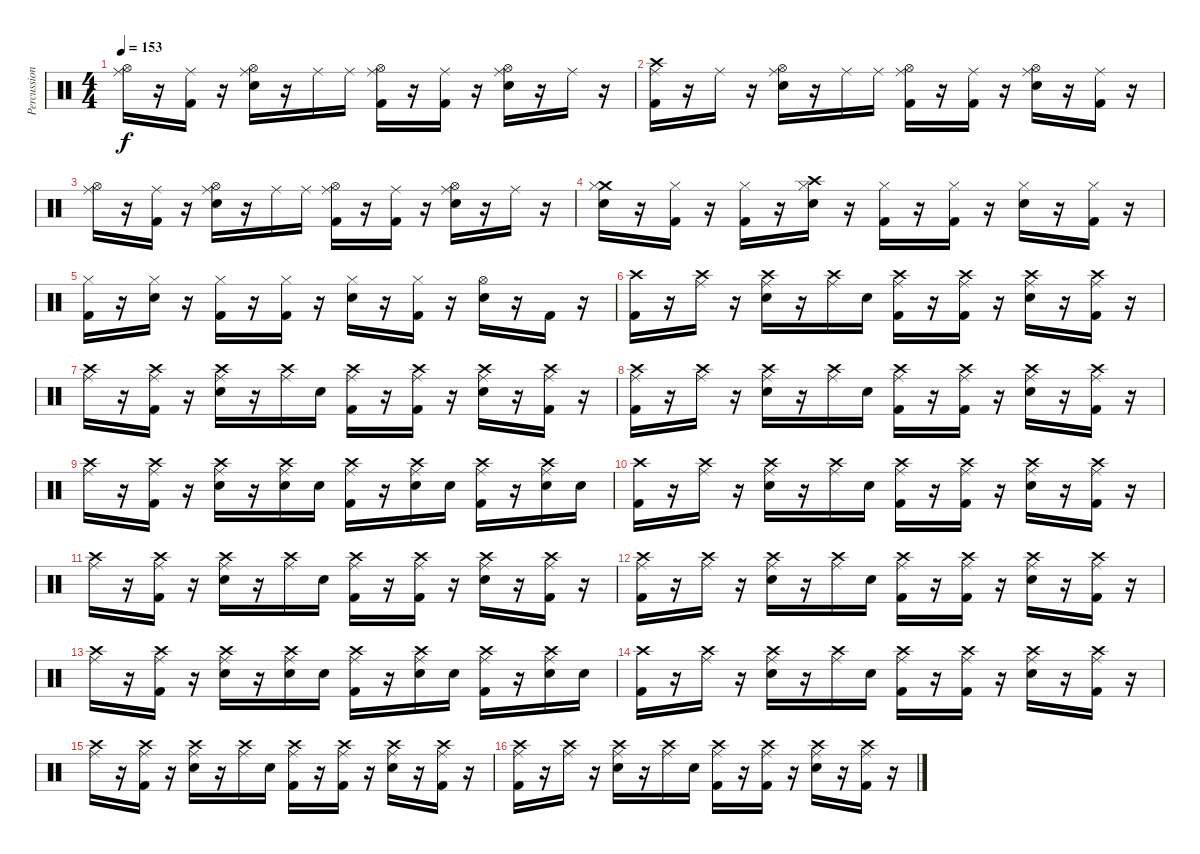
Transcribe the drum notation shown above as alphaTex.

\track ("Percussion" "Percussion") {instrument percussion}
\staff {score}
\articulation defaults
\ts (4 4)
\tempo 153
\clef neutral
\ks c
("Hi-Hat (open)" "Ride (middle)").16{dy f} r.16 ("Ride (middle)" "Kick (hit) 2").16 r.16 ("Hi-Hat (open)" "Ride (middle)" "Electric Snare (hit)").16 r.16 "Ride (middle)".16 "Ride (middle)".16 ("Hi-Hat (open)" "Ride (middle)" "Kick (hit) 2").16 r.16 ("Ride (middle)" "Kick (hit) 2").16 r.16 ("Hi-Hat (open)" "Ride (middle)" "Electric Snare (hit)").16 r.16 "Ride (middle)".16 r.16 |
("Crash high (hit)" "Ride (middle)" "Kick (hit) 2").16 r.16 "Ride (middle)".16 r.16 ("Hi-Hat (open)" "Ride (middle)" "Electric Snare (hit)").16 r.16 "Ride (middle)".16 "Ride (middle)".16 ("Hi-Hat (open)" "Ride (middle)" "Kick (hit) 2").16 r.16 ("Ride (middle)" "Kick (hit) 2").16 r.16 ("Hi-Hat (open)" "Ride (middle)" "Electric Snare (hit)").16 r.16 ("Ride (middle)" "Kick (hit) 2").16 r.16 |
("Hi-Hat (open)" "Ride (middle)").16 r.16 ("Ride (middle)" "Kick (hit) 2").16 r.16 ("Hi-Hat (open)" "Ride (middle)" "Electric Snare (hit)").16 r.16 "Ride (middle)".16 "Ride (middle)".16 ("Hi-Hat (open)" "Ride (middle)" "Kick (hit) 2").16 r.16 ("Ride (middle)" "Kick (hit) 2").16 r.16 ("Hi-Hat (open)" "Ride (middle)" "Electric Snare (hit)").16 r.16 "Ride (middle)".16 r.16 |
("Electric Snare (hit)" "Crash medium (hit)" "Hi-Hat (closed)").16 r.16 ("Kick (hit) 2" "Hi-Hat (closed)").16 r.16 ("Kick (hit) 2" "Hi-Hat (closed)").16 r.16 ("Electric Snare (hit)" "Crash high (hit)" "Hi-Hat (closed)").16 r.16 ("Kick (hit) 2" "Hi-Hat (closed)").16 r.16 ("Kick (hit) 2" "Hi-Hat (closed)").16 r.16 ("Electric Snare (hit)" "Hi-Hat (closed)").16 r.16 ("Kick (hit) 2" "Hi-Hat (closed)").16 r.16 |
("Kick (hit) 2" "Hi-Hat (closed)").16 r.16 ("Electric Snare (hit)" "Hi-Hat (closed)").16 r.16 ("Kick (hit) 2" "Hi-Hat (closed)").16 r.16 ("Kick (hit) 2" "Hi-Hat (closed)").16 r.16 ("Electric Snare (hit)" "Hi-Hat (closed)").16 r.16 ("Kick (hit) 2" "Hi-Hat (closed)").16 r.16 ("Electric Snare (hit)" "Hi-Hat (open)").16 r.16 "Kick (hit) 2".16 r.16 |
("Kick (hit) 2" "Crash high (hit)").16 r.16 ("Crash high (hit)" "Ride (middle)").16 r.16 ("Electric Snare (hit)" "Crash high (hit)" "Ride (middle)").16 r.16 ("Crash high (hit)" "Ride (middle)").16 "Electric Snare (hit)".16 ("Kick (hit) 2" "Crash high (hit)" "Ride (middle)").16 r.16 ("Kick (hit) 2" "Crash high (hit)" "Ride (middle)").16 r.16 ("Electric Snare (hit)" "Crash high (hit)" "Ride (middle)").16 r.16 ("Kick (hit) 2" "Crash high (hit)" "Ride (middle)").16 r.16 |
("Crash high (hit)" "Ride (middle)").16 r.16 ("Crash high (hit)" "Kick (hit) 2" "Ride (middle)").16 r.16 ("Crash high (hit)" "Electric Snare (hit)" "Ride (middle)").16 r.16 ("Crash high (hit)" "Ride (middle)").16 "Electric Snare (hit)".16 ("Kick (hit) 2" "Crash high (hit)" "Ride (middle)").16 r.16 ("Kick (hit) 2" "Crash high (hit)" "Ride (middle)").16 r.16 ("Electric Snare (hit)" "Crash high (hit)" "Ride (middle)").16 r.16 ("Crash high (hit)" "Kick (hit) 2" "Ride (middle)").16 r.16 |
("Kick (hit) 2" "Crash high (hit)" "Ride (middle)").16 r.16 ("Crash high (hit)" "Ride (middle)").16 r.16 ("Electric Snare (hit)" "Crash high (hit)" "Ride (middle)").16 r.16 ("Crash high (hit)" "Ride (middle)").16 "Electric Snare (hit)".16 ("Kick (hit) 2" "Crash high (hit)" "Ride (middle)").16 r.16 ("Kick (hit) 2" "Crash high (hit)" "Ride (middle)").16 r.16 ("Electric Snare (hit)" "Crash high (hit)" "Ride (middle)").16 r.16 ("Kick (hit) 2" "Crash high (hit)" "Ride (middle)").16 r.16 |
("Crash high (hit)" "Ride (middle)").16 r.16 ("Crash high (hit)" "Ride (middle)" "Kick (hit) 2").16 r.16 ("Crash high (hit)" "Ride (middle)" "Electric Snare (hit)").16 r.16 ("Crash high (hit)" "Electric Snare (hit)" "Ride (middle)").16 "Electric Snare (hit)".16 ("Crash high (hit)" "Kick (hit) 2" "Ride (middle)").16 r.16 ("Crash high (hit)" "Electric Snare (hit)" "Ride (middle)").16 "Electric Snare (hit)".16 ("Crash high (hit)" "Kick (hit) 2" "Ride (middle)").16 r.16 ("Crash high (hit)" "Electric Snare (hit)" "Ride (middle)").16 "Electric Snare (hit)".16 |
("Kick (hit) 2" "Crash high (hit)").16 r.16 ("Crash high (hit)" "Ride (middle)").16 r.16 ("Electric Snare (hit)" "Crash high (hit)" "Ride (middle)").16 r.16 ("Crash high (hit)" "Ride (middle)").16 "Electric Snare (hit)".16 ("Kick (hit) 2" "Crash high (hit)" "Ride (middle)").16 r.16 ("Kick (hit) 2" "Crash high (hit)" "Ride (middle)").16 r.16 ("Electric Snare (hit)" "Crash high (hit)" "Ride (middle)").16 r.16 ("Kick (hit) 2" "Crash high (hit)" "Ride (middle)").16 r.16 |
("Crash high (hit)" "Ride (middle)").16 r.16 ("Crash high (hit)" "Kick (hit) 2" "Ride (middle)").16 r.16 ("Crash high (hit)" "Electric Snare (hit)" "Ride (middle)").16 r.16 ("Crash high (hit)" "Ride (middle)").16 "Electric Snare (hit)".16 ("Kick (hit) 2" "Crash high (hit)" "Ride (middle)").16 r.16 ("Kick (hit) 2" "Crash high (hit)" "Ride (middle)").16 r.16 ("Electric Snare (hit)" "Crash high (hit)" "Ride (middle)").16 r.16 ("Crash high (hit)" "Kick (hit) 2" "Ride (middle)").16 r.16 |
("Kick (hit) 2" "Crash high (hit)" "Ride (middle)").16 r.16 ("Crash high (hit)" "Ride (middle)").16 r.16 ("Electric Snare (hit)" "Crash high (hit)" "Ride (middle)").16 r.16 ("Crash high (hit)" "Ride (middle)").16 "Electric Snare (hit)".16 ("Kick (hit) 2" "Crash high (hit)" "Ride (middle)").16 r.16 ("Kick (hit) 2" "Crash high (hit)" "Ride (middle)").16 r.16 ("Electric Snare (hit)" "Crash high (hit)" "Ride (middle)").16 r.16 ("Kick (hit) 2" "Crash high (hit)" "Ride (middle)").16 r.16 |
("Crash high (hit)" "Ride (middle)").16 r.16 ("Crash high (hit)" "Ride (middle)" "Kick (hit) 2").16 r.16 ("Crash high (hit)" "Ride (middle)" "Electric Snare (hit)").16 r.16 ("Crash high (hit)" "Electric Snare (hit)" "Ride (middle)").16 "Electric Snare (hit)".16 ("Crash high (hit)" "Kick (hit) 2" "Ride (middle)").16 r.16 ("Crash high (hit)" "Electric Snare (hit)" "Ride (middle)").16 "Electric Snare (hit)".16 ("Crash high (hit)" "Kick (hit) 2" "Ride (middle)").16 r.16 ("Crash high (hit)" "Electric Snare (hit)" "Ride (middle)").16 "Electric Snare (hit)".16 |
("Kick (hit) 2" "Crash high (hit)").16 r.16 ("Crash high (hit)" "Ride (middle)").16 r.16 ("Electric Snare (hit)" "Crash high (hit)" "Ride (middle)").16 r.16 ("Crash high (hit)" "Ride (middle)").16 "Electric Snare (hit)".16 ("Kick (hit) 2" "Crash high (hit)" "Ride (middle)").16 r.16 ("Kick (hit) 2" "Crash high (hit)" "Ride (middle)").16 r.16 ("Electric Snare (hit)" "Crash high (hit)" "Ride (middle)").16 r.16 ("Kick (hit) 2" "Crash high (hit)" "Ride (middle)").16 r.16 |
("Crash high (hit)" "Ride (middle)").16 r.16 ("Crash high (hit)" "Kick (hit) 2" "Ride (middle)").16 r.16 ("Crash high (hit)" "Electric Snare (hit)" "Ride (middle)").16 r.16 ("Crash high (hit)" "Ride (middle)").16 "Electric Snare (hit)".16 ("Kick (hit) 2" "Crash high (hit)" "Ride (middle)").16 r.16 ("Kick (hit) 2" "Crash high (hit)" "Ride (middle)").16 r.16 ("Electric Snare (hit)" "Crash high (hit)" "Ride (middle)").16 r.16 ("Crash high (hit)" "Kick (hit) 2" "Ride (middle)").16 r.16 |
("Kick (hit) 2" "Crash high (hit)" "Ride (middle)").16 r.16 ("Crash high (hit)" "Ride (middle)").16 r.16 ("Electric Snare (hit)" "Crash high (hit)" "Ride (middle)").16 r.16 ("Crash high (hit)" "Ride (middle)").16 "Electric Snare (hit)".16 ("Kick (hit) 2" "Crash high (hit)" "Ride (middle)").16 r.16 ("Kick (hit) 2" "Crash high (hit)" "Ride (middle)").16 r.16 ("Electric Snare (hit)" "Crash high (hit)" "Ride (middle)").16 r.16 ("Kick (hit) 2" "Crash high (hit)" "Ride (middle)").16 r.16
